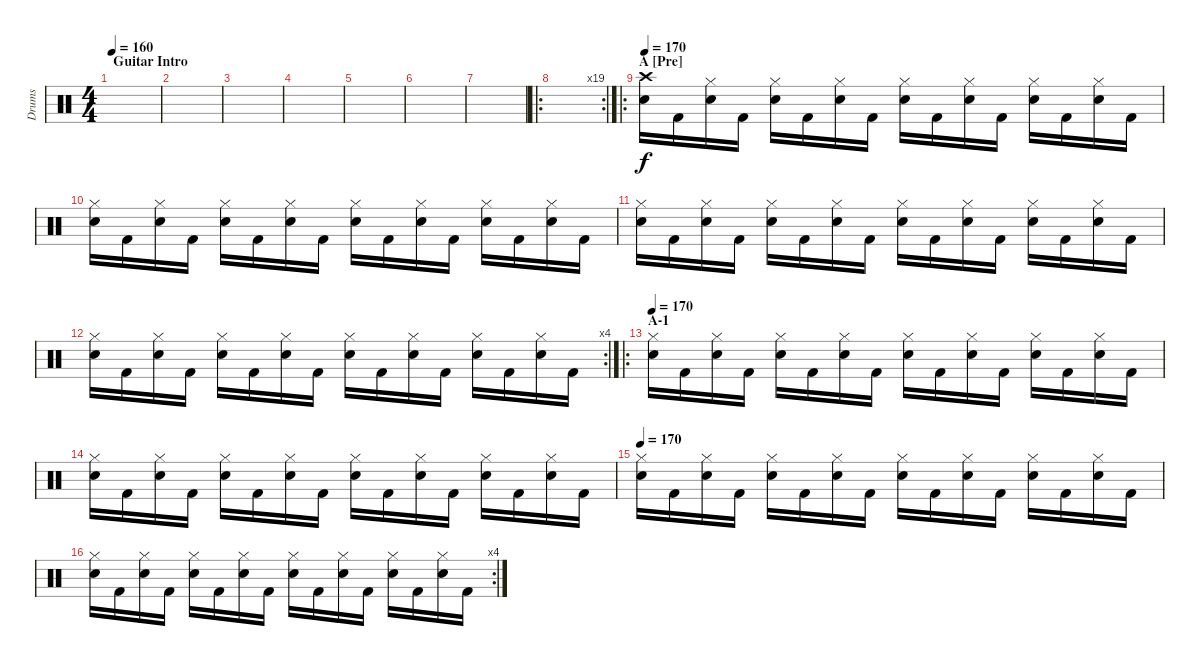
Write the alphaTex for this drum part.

\track ("Drums" "Drums") {instrument percussion}
\staff {score}
\articulation defaults
\ts (4 4)
\section ("" "Guitar Intro")
\tempo 160
\clef neutral
\ks c
|
|
|
|
|
|
|
\ro
\rc 19
|
\ro
\section ("" "A [Pre]")
\tempo 170
("Crash high (hit)" "Electric Snare (hit)").16 "Kick (hit) 2".16 ("Hi-Hat (closed)" "Electric Snare (hit)").16 "Kick (hit) 2".16 ("Hi-Hat (closed)" "Electric Snare (hit)").16 "Kick (hit) 2".16 ("Hi-Hat (closed)" "Electric Snare (hit)").16 "Kick (hit) 2".16 ("Hi-Hat (closed)" "Electric Snare (hit)").16 "Kick (hit) 2".16 ("Hi-Hat (closed)" "Electric Snare (hit)").16 "Kick (hit) 2".16 ("Hi-Hat (closed)" "Electric Snare (hit)").16 "Kick (hit) 2".16 ("Hi-Hat (closed)" "Electric Snare (hit)").16 "Kick (hit) 2".16 |
("Hi-Hat (closed)" "Electric Snare (hit)").16 "Kick (hit) 2".16 ("Hi-Hat (closed)" "Electric Snare (hit)").16 "Kick (hit) 2".16 ("Hi-Hat (closed)" "Electric Snare (hit)").16 "Kick (hit) 2".16 ("Hi-Hat (closed)" "Electric Snare (hit)").16 "Kick (hit) 2".16 ("Hi-Hat (closed)" "Electric Snare (hit)").16 "Kick (hit) 2".16 ("Hi-Hat (closed)" "Electric Snare (hit)").16 "Kick (hit) 2".16 ("Hi-Hat (closed)" "Electric Snare (hit)").16 "Kick (hit) 2".16 ("Hi-Hat (closed)" "Electric Snare (hit)").16 "Kick (hit) 2".16 |
("Hi-Hat (closed)" "Electric Snare (hit)").16 "Kick (hit) 2".16 ("Hi-Hat (closed)" "Electric Snare (hit)").16 "Kick (hit) 2".16 ("Hi-Hat (closed)" "Electric Snare (hit)").16 "Kick (hit) 2".16 ("Hi-Hat (closed)" "Electric Snare (hit)").16 "Kick (hit) 2".16 ("Hi-Hat (closed)" "Electric Snare (hit)").16 "Kick (hit) 2".16 ("Hi-Hat (closed)" "Electric Snare (hit)").16 "Kick (hit) 2".16 ("Hi-Hat (closed)" "Electric Snare (hit)").16 "Kick (hit) 2".16 ("Hi-Hat (closed)" "Electric Snare (hit)").16 "Kick (hit) 2".16 |
\rc 4
("Hi-Hat (closed)" "Electric Snare (hit)").16 "Kick (hit) 2".16 ("Hi-Hat (closed)" "Electric Snare (hit)").16 "Kick (hit) 2".16 ("Hi-Hat (closed)" "Electric Snare (hit)").16 "Kick (hit) 2".16 ("Hi-Hat (closed)" "Electric Snare (hit)").16 "Kick (hit) 2".16 ("Hi-Hat (closed)" "Electric Snare (hit)").16 "Kick (hit) 2".16 ("Hi-Hat (closed)" "Electric Snare (hit)").16 "Kick (hit) 2".16 ("Hi-Hat (closed)" "Electric Snare (hit)").16 "Kick (hit) 2".16 ("Hi-Hat (closed)" "Electric Snare (hit)").16 "Kick (hit) 2".16 |
\ro
\section ("" "A-1")
\tempo 170
("Hi-Hat (closed)" "Electric Snare (hit)").16 "Kick (hit) 2".16 ("Hi-Hat (closed)" "Electric Snare (hit)").16 "Kick (hit) 2".16 ("Hi-Hat (closed)" "Electric Snare (hit)").16 "Kick (hit) 2".16 ("Hi-Hat (closed)" "Electric Snare (hit)").16 "Kick (hit) 2".16 ("Hi-Hat (closed)" "Electric Snare (hit)").16 "Kick (hit) 2".16 ("Hi-Hat (closed)" "Electric Snare (hit)").16 "Kick (hit) 2".16 ("Hi-Hat (closed)" "Electric Snare (hit)").16 "Kick (hit) 2".16 ("Hi-Hat (closed)" "Electric Snare (hit)").16 "Kick (hit) 2".16 |
("Hi-Hat (closed)" "Electric Snare (hit)").16 "Kick (hit) 2".16 ("Hi-Hat (closed)" "Electric Snare (hit)").16 "Kick (hit) 2".16 ("Hi-Hat (closed)" "Electric Snare (hit)").16 "Kick (hit) 2".16 ("Hi-Hat (closed)" "Electric Snare (hit)").16 "Kick (hit) 2".16 ("Hi-Hat (closed)" "Electric Snare (hit)").16 "Kick (hit) 2".16 ("Hi-Hat (closed)" "Electric Snare (hit)").16 "Kick (hit) 2".16 ("Hi-Hat (closed)" "Electric Snare (hit)").16 "Kick (hit) 2".16 ("Hi-Hat (closed)" "Electric Snare (hit)").16 "Kick (hit) 2".16 |
\tempo 170
("Hi-Hat (closed)" "Electric Snare (hit)").16 "Kick (hit) 2".16 ("Hi-Hat (closed)" "Electric Snare (hit)").16 "Kick (hit) 2".16 ("Hi-Hat (closed)" "Electric Snare (hit)").16 "Kick (hit) 2".16 ("Hi-Hat (closed)" "Electric Snare (hit)").16 "Kick (hit) 2".16 ("Hi-Hat (closed)" "Electric Snare (hit)").16 "Kick (hit) 2".16 ("Hi-Hat (closed)" "Electric Snare (hit)").16 "Kick (hit) 2".16 ("Hi-Hat (closed)" "Electric Snare (hit)").16 "Kick (hit) 2".16 ("Hi-Hat (closed)" "Electric Snare (hit)").16 "Kick (hit) 2".16 |
\rc 4
("Hi-Hat (closed)" "Electric Snare (hit)").16 "Kick (hit) 2".16 ("Hi-Hat (closed)" "Electric Snare (hit)").16 "Kick (hit) 2".16 ("Hi-Hat (closed)" "Electric Snare (hit)").16 "Kick (hit) 2".16 ("Hi-Hat (closed)" "Electric Snare (hit)").16 "Kick (hit) 2".16 ("Hi-Hat (closed)" "Electric Snare (hit)").16 "Kick (hit) 2".16 ("Hi-Hat (closed)" "Electric Snare (hit)").16 "Kick (hit) 2".16 ("Hi-Hat (closed)" "Electric Snare (hit)").16 "Kick (hit) 2".16 ("Hi-Hat (closed)" "Electric Snare (hit)").16 "Kick (hit) 2".16
